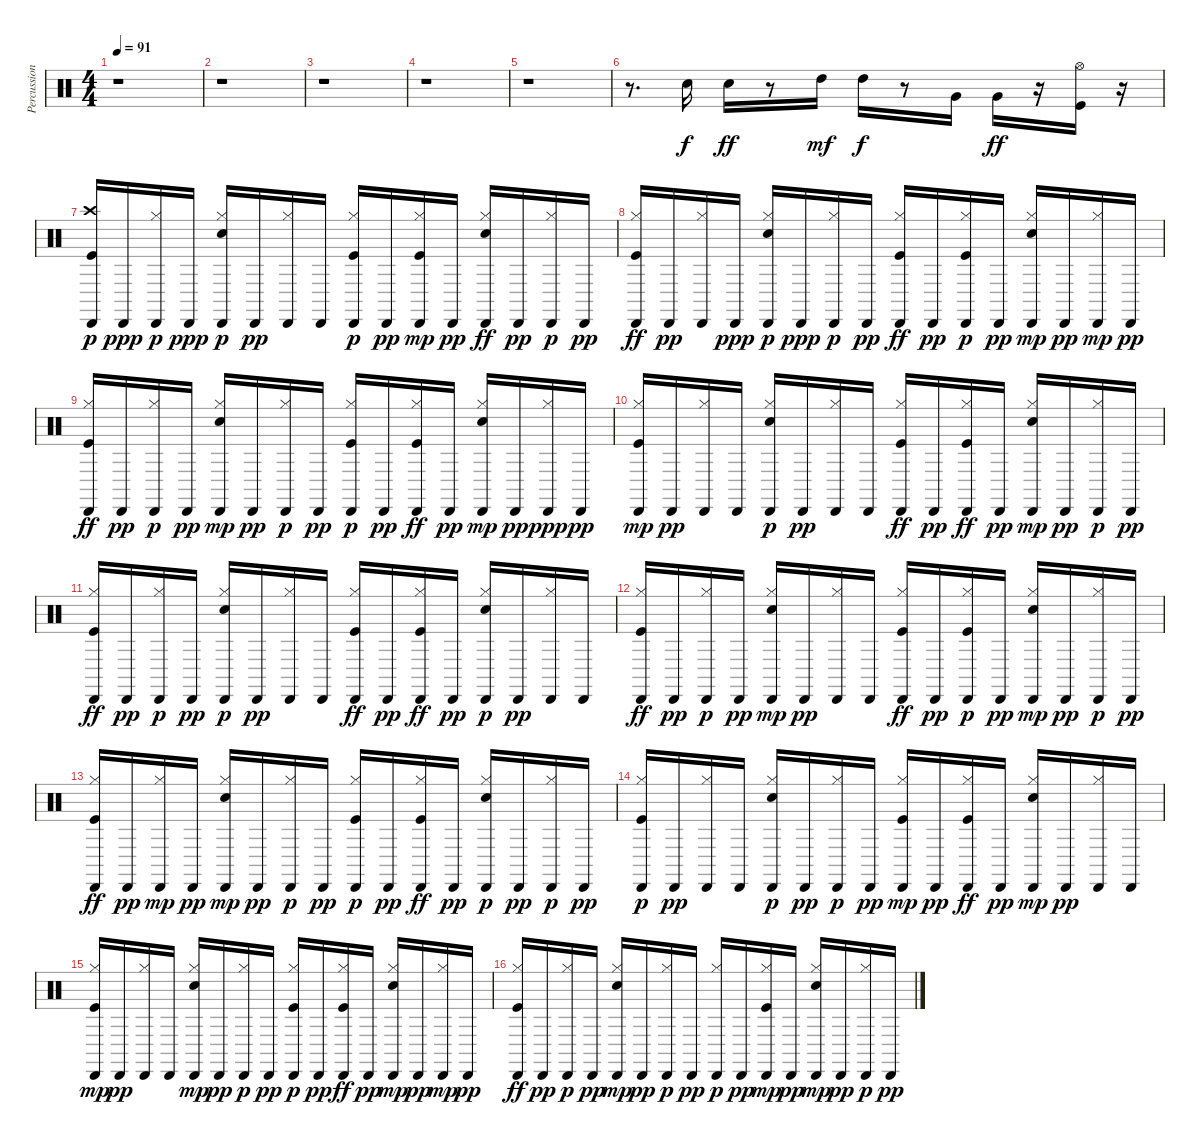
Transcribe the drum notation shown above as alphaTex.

\track ("Percussion" "Percussion") {instrument percussion}
\staff {score}
\articulation defaults
\ts (4 4)
\tempo 91
\clef neutral
\ks c
r.1{dy f} |
r.1 |
r.1 |
r.1 |
r.1 |
r.8{d} "Snare (hit) 2".16 "Snare (hit) 2".16{dy ff} r.8 "High Tom (hit)".16{dy mf} "High Tom (hit)".16{dy f} r.8 "Very Low Tom (hit)".16 "Very Low Tom (hit)".16{dy ff} r.16 ("Hi-Hat (open)" "Kick (hit)").16 r.16 |
("Kick (hit)" "Crash high (hit)" "Cabasa (hit)").16{dy p} "Cabasa (hit)".16{dy ppp} ("Cabasa (hit)" "Hi-Hat (closed)").16{dy p} "Cabasa (hit)".16{dy ppp} ("Cabasa (hit)" "Hi-Hat (closed)" "Snare (hit) 2").16{dy p} "Cabasa (hit)".16{dy pp} ("Hi-Hat (closed)" "Cabasa (hit)").16 "Cabasa (hit)".16 ("Cabasa (hit)" "Hi-Hat (closed)" "Kick (hit)").16{dy p} "Cabasa (hit)".16{dy pp} ("Cabasa (hit)" "Hi-Hat (closed)" "Kick (hit)").16{dy mp} "Cabasa (hit)".16{dy pp} ("Cabasa (hit)" "Hi-Hat (closed)" "Snare (hit) 2").16{dy ff} "Cabasa (hit)".16{dy pp} ("Cabasa (hit)" "Hi-Hat (closed)").16{dy p} "Cabasa (hit)".16{dy pp} |
("Cabasa (hit)" "Hi-Hat (closed)" "Kick (hit)").16{dy ff} "Cabasa (hit)".16{dy pp} ("Hi-Hat (closed)" "Cabasa (hit)").16 "Cabasa (hit)".16{dy ppp} ("Hi-Hat (closed)" "Cabasa (hit)" "Snare (hit) 2").16{dy p} "Cabasa (hit)".16{dy ppp} ("Cabasa (hit)" "Hi-Hat (closed)").16{dy p} "Cabasa (hit)".16{dy pp} ("Cabasa (hit)" "Hi-Hat (closed)" "Kick (hit)").16{dy ff} "Cabasa (hit)".16{dy pp} ("Cabasa (hit)" "Kick (hit)" "Hi-Hat (closed)").16{dy p} "Cabasa (hit)".16{dy pp} ("Cabasa (hit)" "Snare (hit) 2" "Hi-Hat (closed)").16{dy mp} "Cabasa (hit)".16{dy pp} ("Cabasa (hit)" "Hi-Hat (closed)").16{dy mp} "Cabasa (hit)".16{dy pp} |
("Cabasa (hit)" "Hi-Hat (closed)" "Kick (hit)").16{dy ff} "Cabasa (hit)".16{dy pp} ("Cabasa (hit)" "Hi-Hat (closed)").16{dy p} "Cabasa (hit)".16{dy pp} ("Cabasa (hit)" "Hi-Hat (closed)" "Snare (hit) 2").16{dy mp} "Cabasa (hit)".16{dy pp} ("Cabasa (hit)" "Hi-Hat (closed)").16{dy p} "Cabasa (hit)".16{dy pp} ("Hi-Hat (closed)" "Kick (hit)" "Cabasa (hit)").16{dy p} "Cabasa (hit)".16{dy pp} ("Cabasa (hit)" "Hi-Hat (closed)" "Kick (hit)").16{dy ff} "Cabasa (hit)".16{dy pp} ("Cabasa (hit)" "Hi-Hat (closed)" "Snare (hit) 2").16{dy mp} "Cabasa (hit)".16{dy pp} ("Hi-Hat (closed)" "Cabasa (hit)").16{dy ppp} "Cabasa (hit)".16{dy pp} |
("Cabasa (hit)" "Kick (hit)" "Hi-Hat (closed)").16{dy mp} "Cabasa (hit)".16{dy pp} ("Cabasa (hit)" "Hi-Hat (closed)").16 "Cabasa (hit)".16 ("Snare (hit) 2" "Cabasa (hit)" "Hi-Hat (closed)").16{dy p} "Cabasa (hit)".16{dy pp} ("Hi-Hat (closed)" "Cabasa (hit)").16 "Cabasa (hit)".16 ("Hi-Hat (closed)" "Cabasa (hit)" "Kick (hit)").16{dy ff} "Cabasa (hit)".16{dy pp} ("Cabasa (hit)" "Hi-Hat (closed)" "Kick (hit)").16{dy ff} "Cabasa (hit)".16{dy pp} ("Cabasa (hit)" "Hi-Hat (closed)" "Snare (hit) 2").16{dy mp} "Cabasa (hit)".16{dy pp} ("Cabasa (hit)" "Hi-Hat (closed)").16{dy p} "Cabasa (hit)".16{dy pp} |
("Cabasa (hit)" "Hi-Hat (closed)" "Kick (hit)").16{dy ff} "Cabasa (hit)".16{dy pp} ("Cabasa (hit)" "Hi-Hat (closed)").16{dy p} "Cabasa (hit)".16{dy pp} ("Cabasa (hit)" "Hi-Hat (closed)" "Snare (hit) 2").16{dy p} "Cabasa (hit)".16{dy pp} ("Cabasa (hit)" "Hi-Hat (closed)").16 "Cabasa (hit)".16 ("Cabasa (hit)" "Hi-Hat (closed)" "Kick (hit)").16{dy ff} "Cabasa (hit)".16{dy pp} ("Cabasa (hit)" "Hi-Hat (closed)" "Kick (hit)").16{dy ff} "Cabasa (hit)".16{dy pp} ("Cabasa (hit)" "Hi-Hat (closed)" "Snare (hit) 2").16{dy p} "Cabasa (hit)".16{dy pp} ("Hi-Hat (closed)" "Cabasa (hit)").16 "Cabasa (hit)".16 |
("Hi-Hat (closed)" "Cabasa (hit)" "Kick (hit)").16{dy ff} "Cabasa (hit)".16{dy pp} ("Cabasa (hit)" "Hi-Hat (closed)").16{dy p} "Cabasa (hit)".16{dy pp} ("Cabasa (hit)" "Hi-Hat (closed)" "Snare (hit) 2").16{dy mp} "Cabasa (hit)".16{dy pp} ("Hi-Hat (closed)" "Cabasa (hit)").16 "Cabasa (hit)".16 ("Cabasa (hit)" "Hi-Hat (closed)" "Kick (hit)").16{dy ff} "Cabasa (hit)".16{dy pp} ("Cabasa (hit)" "Kick (hit)" "Hi-Hat (closed)").16{dy p} "Cabasa (hit)".16{dy pp} ("Cabasa (hit)" "Hi-Hat (closed)" "Snare (hit) 2").16{dy mp} "Cabasa (hit)".16{dy pp} ("Cabasa (hit)" "Hi-Hat (closed)").16{dy p} "Cabasa (hit)".16{dy pp} |
("Cabasa (hit)" "Hi-Hat (closed)" "Kick (hit)").16{dy ff} "Cabasa (hit)".16{dy pp} ("Cabasa (hit)" "Hi-Hat (closed)").16{dy mp} "Cabasa (hit)".16{dy pp} ("Cabasa (hit)" "Hi-Hat (closed)" "Snare (hit) 2").16{dy mp} "Cabasa (hit)".16{dy pp} ("Cabasa (hit)" "Hi-Hat (closed)").16{dy p} "Cabasa (hit)".16{dy pp} ("Kick (hit)" "Cabasa (hit)" "Hi-Hat (closed)").16{dy p} "Cabasa (hit)".16{dy pp} ("Cabasa (hit)" "Hi-Hat (closed)" "Kick (hit)").16{dy ff} "Cabasa (hit)".16{dy pp} ("Cabasa (hit)" "Hi-Hat (closed)" "Snare (hit) 2").16{dy p} "Cabasa (hit)".16{dy pp} ("Cabasa (hit)" "Hi-Hat (closed)").16{dy p} "Cabasa (hit)".16{dy pp} |
("Cabasa (hit)" "Kick (hit)" "Hi-Hat (closed)").16{dy p} "Cabasa (hit)".16{dy pp} ("Cabasa (hit)" "Hi-Hat (closed)").16 "Cabasa (hit)".16 ("Hi-Hat (closed)" "Cabasa (hit)" "Snare (hit) 2").16{dy p} "Cabasa (hit)".16{dy pp} ("Cabasa (hit)" "Hi-Hat (closed)").16{dy p} "Cabasa (hit)".16{dy pp} ("Cabasa (hit)" "Hi-Hat (closed)" "Kick (hit)").16{dy mp} "Cabasa (hit)".16{dy pp} ("Cabasa (hit)" "Hi-Hat (closed)" "Kick (hit)").16{dy ff} "Cabasa (hit)".16{dy pp} ("Cabasa (hit)" "Hi-Hat (closed)" "Snare (hit) 2").16{dy mp} "Cabasa (hit)".16{dy pp} ("Hi-Hat (closed)" "Cabasa (hit)").16 "Cabasa (hit)".16 |
("Kick (hit)" "Cabasa (hit)" "Hi-Hat (closed)").16{dy mp} "Cabasa (hit)".16{dy pp} ("Hi-Hat (closed)" "Cabasa (hit)").16 "Cabasa (hit)".16 ("Cabasa (hit)" "Hi-Hat (closed)" "Snare (hit) 2").16{dy mp} "Cabasa (hit)".16{dy pp} ("Cabasa (hit)" "Hi-Hat (closed)").16{dy p} "Cabasa (hit)".16{dy pp} ("Kick (hit)" "Cabasa (hit)" "Hi-Hat (closed)").16{dy p} "Cabasa (hit)".16{dy pp} ("Cabasa (hit)" "Hi-Hat (closed)" "Kick (hit)").16{dy ff} "Cabasa (hit)".16{dy pp} ("Cabasa (hit)" "Hi-Hat (closed)" "Snare (hit) 2").16{dy mp} "Cabasa (hit)".16{dy pp} ("Cabasa (hit)" "Hi-Hat (closed)").16{dy mp} "Cabasa (hit)".16{dy pp} |
("Cabasa (hit)" "Hi-Hat (closed)" "Kick (hit)").16{dy ff} "Cabasa (hit)".16{dy pp} ("Cabasa (hit)" "Hi-Hat (closed)").16{dy p} "Cabasa (hit)".16{dy pp} ("Cabasa (hit)" "Snare (hit) 2" "Hi-Hat (closed)").16{dy mp} "Cabasa (hit)".16{dy pp} ("Cabasa (hit)" "Hi-Hat (closed)").16{dy p} "Cabasa (hit)".16{dy pp} ("Cabasa (hit)" "Hi-Hat (closed)").16{dy p} "Cabasa (hit)".16{dy pp} ("Kick (hit)" "Cabasa (hit)" "Hi-Hat (closed)").16{dy mp} "Cabasa (hit)".16{dy pp} ("Cabasa (hit)" "Snare (hit) 2" "Hi-Hat (closed)").16{dy mp} "Cabasa (hit)".16{dy pp} ("Cabasa (hit)" "Hi-Hat (closed)").16{dy p} "Cabasa (hit)".16{dy pp}
